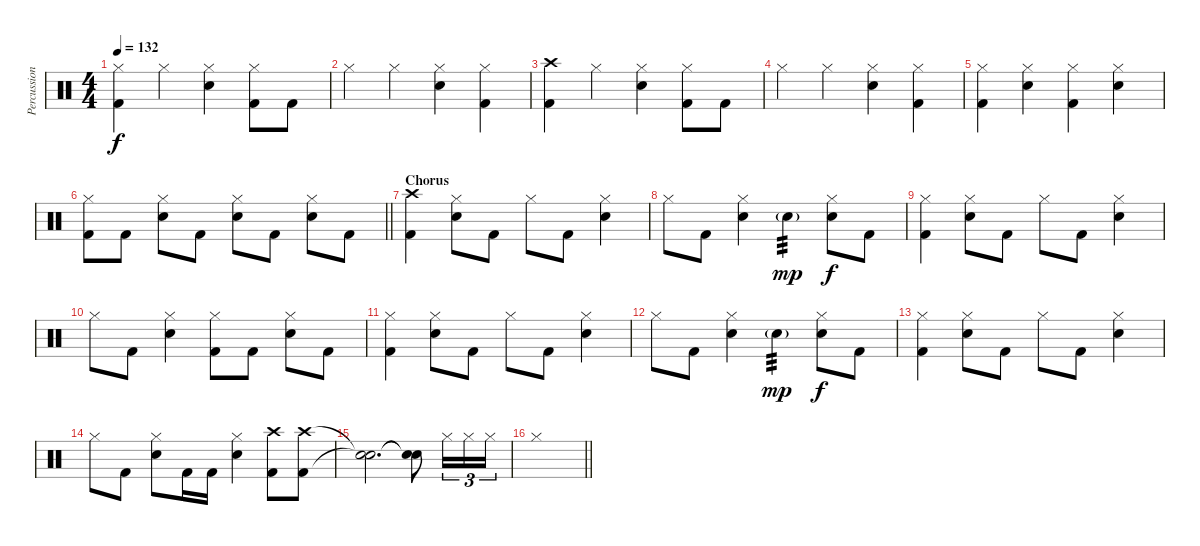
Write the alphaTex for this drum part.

\track ("Percussion" "Percussion") {instrument percussion}
\staff {score}
\articulation defaults
\ts (4 4)
\tempo 132
\clef neutral
\ks c
("Hi-Hat (closed)" "Kick (hit) 2").4{dy f} "Hi-Hat (closed)".4 ("Hi-Hat (closed)" "Snare (hit) 2").4 ("Hi-Hat (closed)" "Kick (hit) 2").8 "Kick (hit) 2".8 |
"Hi-Hat (closed)".4 "Hi-Hat (closed)".4 ("Hi-Hat (closed)" "Snare (hit) 2").4 ("Hi-Hat (closed)" "Kick (hit) 2").4 |
("Crash high (hit)" "Kick (hit) 2").4 "Hi-Hat (closed)".4 ("Hi-Hat (closed)" "Snare (hit) 2").4 ("Hi-Hat (closed)" "Kick (hit) 2").8 "Kick (hit) 2".8 |
"Hi-Hat (closed)".4 "Hi-Hat (closed)".4 ("Hi-Hat (closed)" "Snare (hit) 2").4 ("Hi-Hat (closed)" "Kick (hit) 2").4 |
("Hi-Hat (closed)" "Kick (hit) 2").4 ("Hi-Hat (closed)" "Snare (hit) 2").4 ("Hi-Hat (closed)" "Kick (hit) 2").4 ("Hi-Hat (closed)" "Snare (hit) 2").4 |
\barLineRight lightlight
("Hi-Hat (closed)" "Kick (hit) 2").8 "Kick (hit) 2".8 ("Hi-Hat (closed)" "Snare (hit) 2").8 "Kick (hit) 2".8 ("Hi-Hat (closed)" "Snare (hit) 2").8 "Kick (hit) 2".8 ("Hi-Hat (closed)" "Snare (hit) 2").8 "Kick (hit) 2".8 |
\section ("" "Chorus")
("Crash high (hit)" "Kick (hit) 2").4 ("Hi-Hat (closed)" "Snare (hit) 2").8 "Kick (hit) 2".8 "Hi-Hat (closed)".8 "Kick (hit) 2".8 ("Hi-Hat (closed)" "Snare (hit) 2").4 |
"Hi-Hat (closed)".8 "Kick (hit) 2".8 ("Hi-Hat (closed)" "Snare (hit) 2").4 "Snare (hit) 2"{g}.4{tp 3 dy mp} ("Hi-Hat (closed)" "Snare (hit) 2").8{dy f} "Kick (hit) 2".8 |
("Hi-Hat (closed)" "Kick (hit) 2").4 ("Hi-Hat (closed)" "Snare (hit) 2").8 "Kick (hit) 2".8 "Hi-Hat (closed)".8 "Kick (hit) 2".8 ("Hi-Hat (closed)" "Snare (hit) 2").4 |
"Hi-Hat (closed)".8 "Kick (hit) 2".8 ("Hi-Hat (closed)" "Snare (hit) 2").4 ("Hi-Hat (closed)" "Kick (hit) 2").8 "Kick (hit) 2".8 ("Hi-Hat (closed)" "Snare (hit) 2").8 "Kick (hit) 2".8 |
("Hi-Hat (closed)" "Kick (hit) 2").4 ("Hi-Hat (closed)" "Snare (hit) 2").8 "Kick (hit) 2".8 "Hi-Hat (closed)".8 "Kick (hit) 2".8 ("Hi-Hat (closed)" "Snare (hit) 2").4 |
"Hi-Hat (closed)".8 "Kick (hit) 2".8 ("Hi-Hat (closed)" "Snare (hit) 2").4 "Snare (hit) 2"{g}.4{tp 3 dy mp} ("Hi-Hat (closed)" "Snare (hit) 2").8{dy f} "Kick (hit) 2".8 |
("Hi-Hat (closed)" "Kick (hit) 2").4 ("Hi-Hat (closed)" "Snare (hit) 2").8 "Kick (hit) 2".8 "Hi-Hat (closed)".8 "Kick (hit) 2".8 ("Hi-Hat (closed)" "Snare (hit) 2").4 |
"Hi-Hat (closed)".8 "Kick (hit) 2".8 ("Hi-Hat (closed)" "Snare (hit) 2").8 "Kick (hit) 2".16 "Kick (hit) 2".16 ("Hi-Hat (closed)" "Snare (hit) 2").4 ("Crash high (hit)" "Kick (hit) 2").8 ("Crash high (hit)" "Kick (hit) 2").8 |
("Snare (hit)"{t} "Snare (hit)"{t}).2{d} ("Snare (hit)"{t} "Snare (hit)"{t}).8 "Hi-Hat (closed)".16{tu (3 2)} "Hi-Hat (closed)".16{tu (3 2)} "Hi-Hat (closed)".16{tu (3 2)} |
\barLineRight lightlight "Hi-Hat (closed)".1
